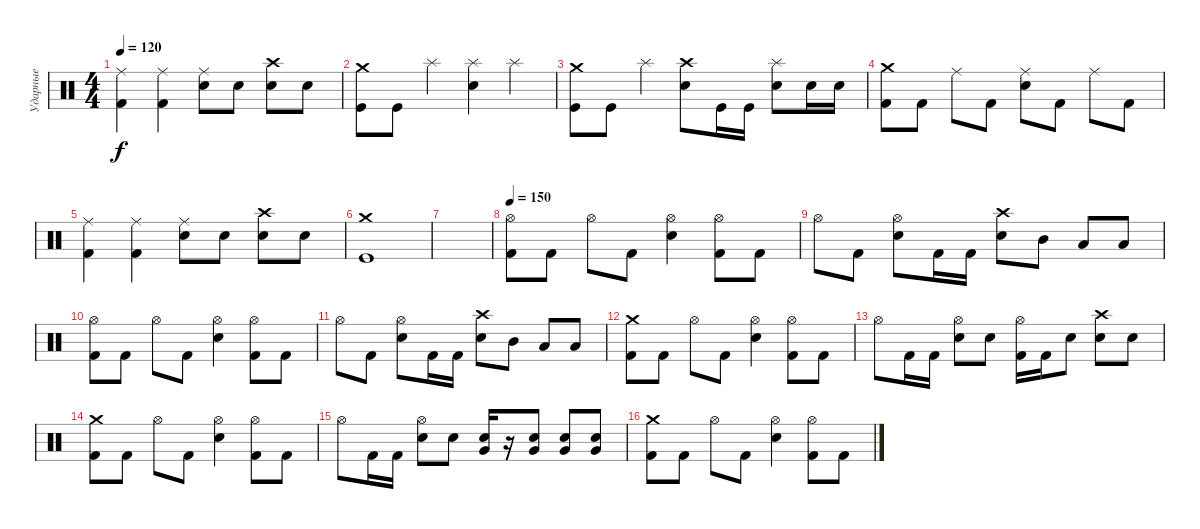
\track ("Ударные" "Ударные") {instrument percussion}
\staff {score}
\articulation defaults
\ts (4 4)
\tempo 120
\clef neutral
\ks c
("Ride (middle)" "Kick (hit) 2").4{dy f} ("Ride (middle)" "Kick (hit) 2").4 ("Ride (middle)" "Snare (hit) 2").8 "Snare (hit) 2".8 ("Crash high (hit)" "Snare (hit) 2").8 "Snare (hit) 2".8 |
("Crash medium (hit)" "Kick (hit)").8 "Kick (hit)".8 "Splash (hit)".4 ("Splash (hit)" "Snare (hit) 2").4 "Splash (hit)".4 |
("Crash medium (hit)" "Kick (hit)").8 "Kick (hit)".8 "Splash (hit)".4 ("Crash high (hit)" "Snare (hit) 2").8 "Kick (hit)".16 "Kick (hit)".16 ("Splash (hit)" "Snare (hit) 2").8 "Snare (hit) 2".16 "Snare (hit) 2".16 |
("Crash medium (hit)" "Kick (hit) 2").8 "Kick (hit) 2".8 "Ride (middle)".8 "Kick (hit) 2".8 ("Ride (middle)" "Snare (hit) 2").8 "Kick (hit) 2".8 "Ride (middle)".8 "Kick (hit) 2".8 |
("Ride (middle)" "Kick (hit) 2").4 ("Ride (middle)" "Kick (hit) 2").4 ("Ride (middle)" "Snare (hit) 2").8 "Snare (hit) 2".8 ("Crash high (hit)" "Snare (hit) 2").8 "Snare (hit) 2".8 |
("Crash medium (hit)" "Kick (hit)").1 |
|
\tempo 150
("Hi-Hat (open)" "Kick (hit) 2").8 "Kick (hit) 2".8 "Hi-Hat (open)".8 "Kick (hit) 2".8 ("Hi-Hat (open)" "Snare (hit) 2").4 ("Hi-Hat (open)" "Kick (hit) 2").8 "Kick (hit) 2".8 |
"Hi-Hat (open)".8 "Kick (hit) 2".8 ("Hi-Hat (open)" "Snare (hit) 2").8 "Kick (hit) 2".16 "Kick (hit) 2".16 ("Crash high (hit)" "Snare (hit) 2").8 "Mid Tom (hit)".8 "Low Tom (hit)".8 "Low Tom (hit)".8 |
("Hi-Hat (open)" "Kick (hit) 2").8 "Kick (hit) 2".8 "Hi-Hat (open)".8 "Kick (hit) 2".8 ("Hi-Hat (open)" "Snare (hit) 2").4 ("Hi-Hat (open)" "Kick (hit) 2").8 "Kick (hit) 2".8 |
"Hi-Hat (open)".8 "Kick (hit) 2".8 ("Hi-Hat (open)" "Snare (hit) 2").8 "Kick (hit) 2".16 "Kick (hit) 2".16 ("Crash high (hit)" "Snare (hit) 2").8 "Mid Tom (hit)".8 "Low Tom (hit)".8 "Low Tom (hit)".8 |
("Crash medium (hit)" "Kick (hit) 2").8 "Kick (hit) 2".8 "Hi-Hat (open)".8 "Kick (hit) 2".8 ("Hi-Hat (open)" "Snare (hit) 2").4 ("Hi-Hat (open)" "Kick (hit) 2").8 "Kick (hit) 2".8 |
"Hi-Hat (open)".8 "Kick (hit) 2".16 "Kick (hit) 2".16 ("Hi-Hat (open)" "Snare (hit) 2").8 "Snare (hit) 2".8 ("Hi-Hat (open)" "Kick (hit) 2").16 "Kick (hit) 2".16 "Snare (hit) 2".8 ("Crash high (hit)" "Snare (hit) 2").8 "Snare (hit) 2".8 |
("Crash medium (hit)" "Kick (hit) 2").8 "Kick (hit) 2".8 "Hi-Hat (open)".8 "Kick (hit) 2".8 ("Hi-Hat (open)" "Snare (hit) 2").4 ("Hi-Hat (open)" "Kick (hit) 2").8 "Kick (hit) 2".8 |
"Hi-Hat (open)".8 "Kick (hit) 2".16 "Kick (hit) 2".16 ("Hi-Hat (open)" "Snare (hit) 2").8 "Snare (hit) 2".8 ("Very Low Tom (hit)" "Snare (hit) 2").16 r.16 ("Very Low Tom (hit)" "Snare (hit) 2").8 ("Very Low Tom (hit)" "Snare (hit) 2").8 ("Very Low Tom (hit)" "Snare (hit) 2").8 |
("Crash medium (hit)" "Kick (hit) 2").8 "Kick (hit) 2".8 "Hi-Hat (open)".8 "Kick (hit) 2".8 ("Hi-Hat (open)" "Snare (hit) 2").4 ("Hi-Hat (open)" "Kick (hit) 2").8 "Kick (hit) 2".8
